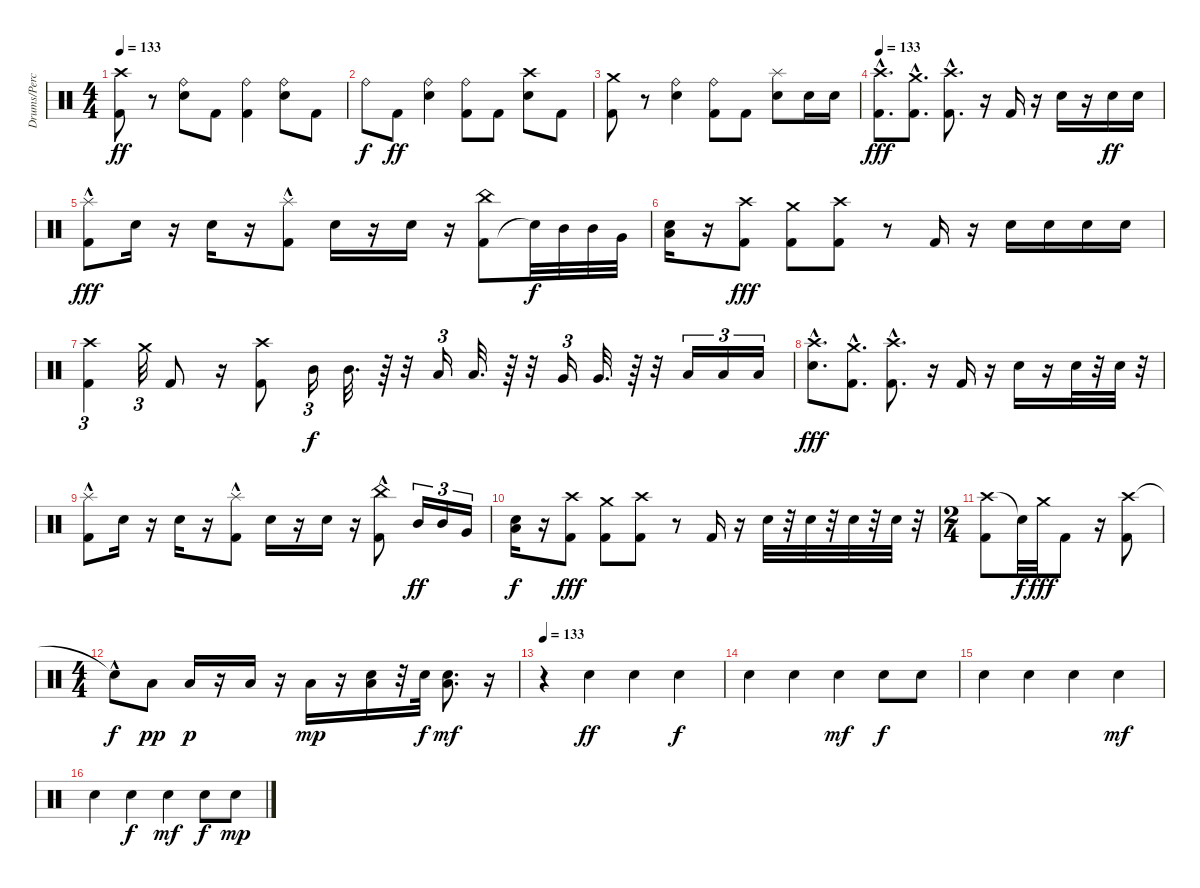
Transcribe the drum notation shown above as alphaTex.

\track ("Drums/Percussion" "Drums/Perc") {instrument percussion}
\staff {score}
\articulation defaults
\ts (4 4)
\tempo 133
\clef neutral
\ks c
("Kick (hit) 2" "Crash high (hit)").8{dy ff} r.8 ("Snare (hit) 2" "Ride (bell)").8 "Kick (hit) 2".8 ("Kick (hit) 2" "Ride (bell)").4 ("Snare (hit) 2" "Ride (bell)").8 "Kick (hit) 2".8 |
"Ride (bell)".8{dy f} "Kick (hit) 2".8{dy ff} ("Snare (hit) 2" "Ride (bell)").4 ("Kick (hit) 2" "Ride (bell)").8 "Kick (hit) 2".8 ("Snare (hit) 2" "Crash high (hit)").8 "Kick (hit) 2".8 |
("Kick (hit) 2" "Crash medium (hit)").8 r.8 ("Snare (hit) 2" "Ride (bell)").4 ("Kick (hit) 2" "Ride (bell)").8 "Kick (hit) 2".8 ("Snare (hit) 2" "Splash (hit)").8 "Snare (hit) 2".16 "Snare (hit) 2".16 |
\tempo 133
("Kick (hit) 2" "Crash high (hit)"{hac}).8{d dy fff} ("Kick (hit) 2" "Crash medium (hit)"{hac}).8{d} ("Kick (hit) 2" "Crash high (hit)"{hac}).8{d} r.16 "Kick (hit) 2".16 r.16 "Snare (hit) 2".16 r.16 "Snare (hit) 2".16{dy ff} "Snare (hit) 2".16 |
("Kick (hit) 2" "Splash (hit)"{hac}).8{dy fff} "Snare (hit) 2".16 r.16 "Snare (hit) 2".16 r.16 ("Kick (hit) 2" "Splash (hit)"{hac}).8 "Snare (hit) 2".16 r.16 "Snare (hit) 2".16 r.16 ("Kick (hit) 2" "China (hit)").8 "Snare (hit)"{t}.32{dy f} "Mid Tom (hit)".32 "Mid Tom (hit)".32 "Very Low Tom (hit)".32 |
("Snare (hit) 2" "Low Floor Tom (hit)").16 r.16 ("Kick (hit) 2" "Crash high (hit)").8{dy fff} ("Kick (hit) 2" "Crash medium (hit)").8 ("Kick (hit) 2" "Crash high (hit)").8 r.8 "Kick (hit) 2".16 r.16 "Snare (hit) 2".16 "Snare (hit) 2".16 "Snare (hit) 2".16 "Snare (hit) 2".16 |
("Kick (hit) 2" "Crash high (hit)").4{tu (3 2)} "Crash medium (hit)".32{tu (3 2)} "Kick (hit) 2".8 r.16 ("Kick (hit) 2" "Crash high (hit)").8 "Mid Tom (hit)".16{tu (3 2) dy f} "Mid Tom (hit)".32{d} r.64 r.32 "Low Tom (hit)".16{tu (3 2)} "Low Tom (hit)".32{d} r.64 r.32 "Very Low Tom (hit)".16{tu (3 2)} "Very Low Tom (hit)".32{d} r.64 r.32 "Low Floor Tom (hit)".16{tu (3 2)} "Low Floor Tom (hit)".16{tu (3 2)} "Low Floor Tom (hit)".16{tu (3 2)} |
("Snare (hit) 2"{hac} "Crash high (hit)"{hac}).8{d dy fff} ("Kick (hit) 2" "Crash medium (hit)"{hac}).8{d} ("Kick (hit) 2" "Crash high (hit)"{hac}).8{d} r.16 "Kick (hit) 2".16 r.16 "Snare (hit) 2".16 r.16 "Snare (hit) 2".32 r.32 "Snare (hit) 2".32 r.32 |
("Kick (hit) 2" "Splash (hit)"{hac}).8 "Snare (hit) 2".16 r.16 "Snare (hit) 2".16 r.16 ("Kick (hit) 2" "Splash (hit)"{hac}).8 "Snare (hit) 2".16 r.16 "Snare (hit) 2".16 r.16 ("Kick (hit) 2" "China (hit)"{hac}).8 "Mid Tom (hit)".16{tu (3 2) dy ff} "Mid Tom (hit)".16{tu (3 2)} "Very Low Tom (hit)".16{tu (3 2)} |
("Snare (hit) 2" "Low Floor Tom (hit)").16{dy f} r.16 ("Crash high (hit)" "Kick (hit) 2").8{dy fff} ("Crash medium (hit)" "Kick (hit) 2").8 ("Crash high (hit)" "Kick (hit) 2").8 r.8 "Kick (hit) 2".16 r.16 "Snare (hit) 2".32 r.32 "Snare (hit) 2".32 r.32 "Snare (hit) 2".32 r.32 "Snare (hit) 2".32 r.32 |
\ts (2 4)
("Crash high (hit)" "Kick (hit) 2").8 "Snare (hit)"{t}.32{dy f} "Crash medium (hit)".32{dy fff} "Kick (hit) 2".8 r.16 ("Crash high (hit)" "Kick (hit) 2").8 |
\ts (4 4)
"Snare (hit)"{hac t}.8{dy f} "Low Floor Tom (hit)".8{dy pp} "Low Floor Tom (hit)".16{dy p} r.16 "Low Floor Tom (hit)".16 r.16 "Low Floor Tom (hit)".16{dy mp} r.16 ("Snare (hit) 2" "Low Floor Tom (hit)").16 r.32 "Snare (hit) 2".32{dy f} ("Snare (hit) 2" "Low Floor Tom (hit)").8{d dy mf} r.16 |
\tempo 133
r.4 "Hand Clap (hit)".4{dy ff} "Hand Clap (hit)".4 "Hand Clap (hit)".4{dy f} |
"Hand Clap (hit)".4 "Hand Clap (hit)".4 "Hand Clap (hit)".4{dy mf} "Hand Clap (hit)".8{dy f} "Hand Clap (hit)".8 |
"Hand Clap (hit)".4 "Hand Clap (hit)".4 "Hand Clap (hit)".4 "Hand Clap (hit)".4{dy mf} |
"Hand Clap (hit)".4 "Hand Clap (hit)".4{dy f} "Hand Clap (hit)".4{dy mf} "Hand Clap (hit)".8{dy f} "Hand Clap (hit)".8{dy mp}
